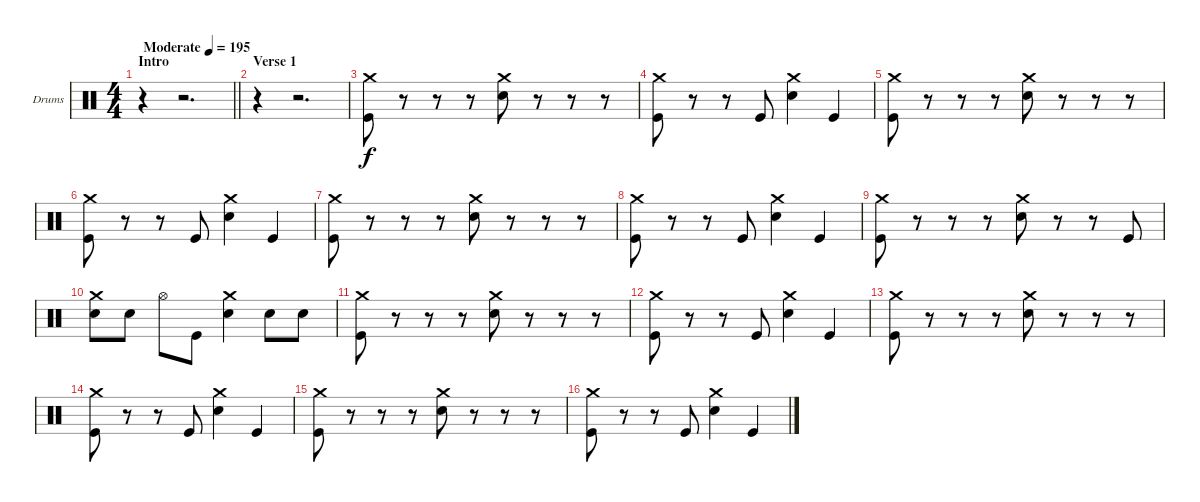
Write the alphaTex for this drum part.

\bracketExtendMode groupsimilarinstruments
\firstSystemTrackNameOrientation horizontal
\otherSystemsTrackNameOrientation horizontal
\track ("Drumkit" "Drums") {instrument percussion}
\staff {score}
\articulation defaults
\ts (4 4)
\beaming (8 2 2 2 2)
\section ("" "Intro")
\tempo (195 "Moderate")
\clef neutral
\barLineRight lightlight
\ks c
r.4{dy f} r.2{d} |
\section ("" "Verse 1")
r.4 r.2{d} |
("Crash medium (hit)" "Kick (hit)").8 r.8 r.8 r.8 ("Crash medium (hit)" "Snare (hit) 2").8 r.8 r.8 r.8 |
("Crash medium (hit)" "Kick (hit)").8 r.8 r.8 "Kick (hit)".8 ("Crash medium (hit)" "Snare (hit) 2").4 "Kick (hit)".4 |
("Crash medium (hit)" "Kick (hit)").8 r.8 r.8 r.8 ("Crash medium (hit)" "Snare (hit) 2").8 r.8 r.8 r.8 |
("Crash medium (hit)" "Kick (hit)").8 r.8 r.8 "Kick (hit)".8 ("Crash medium (hit)" "Snare (hit) 2").4 "Kick (hit)".4 |
("Crash medium (hit)" "Kick (hit)").8 r.8 r.8 r.8 ("Crash medium (hit)" "Snare (hit) 2").8 r.8 r.8 r.8 |
("Crash medium (hit)" "Kick (hit)").8 r.8 r.8 "Kick (hit)".8 ("Crash medium (hit)" "Snare (hit) 2").4 "Kick (hit)".4 |
("Crash medium (hit)" "Kick (hit)").8 r.8 r.8 r.8 ("Crash medium (hit)" "Snare (hit) 2").8 r.8 r.8 "Kick (hit)".8 |
("Crash medium (hit)" "Snare (hit) 2").8 "Snare (hit) 2".8 "Hi-Hat (open)".8 "Kick (hit)".8 ("Crash medium (hit)" "Snare (hit) 2").4 "Snare (hit) 2".8 "Snare (hit) 2".8 |
("Crash medium (hit)" "Kick (hit)").8 r.8 r.8 r.8 ("Crash medium (hit)" "Snare (hit) 2").8 r.8 r.8 r.8 |
("Crash medium (hit)" "Kick (hit)").8 r.8 r.8 "Kick (hit)".8 ("Crash medium (hit)" "Snare (hit) 2").4 "Kick (hit)".4 |
("Crash medium (hit)" "Kick (hit)").8 r.8 r.8 r.8 ("Crash medium (hit)" "Snare (hit) 2").8 r.8 r.8 r.8 |
("Crash medium (hit)" "Kick (hit)").8 r.8 r.8 "Kick (hit)".8 ("Crash medium (hit)" "Snare (hit) 2").4 "Kick (hit)".4 |
("Crash medium (hit)" "Kick (hit)").8 r.8 r.8 r.8 ("Crash medium (hit)" "Snare (hit) 2").8 r.8 r.8 r.8 |
("Crash medium (hit)" "Kick (hit)").8 r.8 r.8 "Kick (hit)".8 ("Crash medium (hit)" "Snare (hit) 2").4 "Kick (hit)".4
